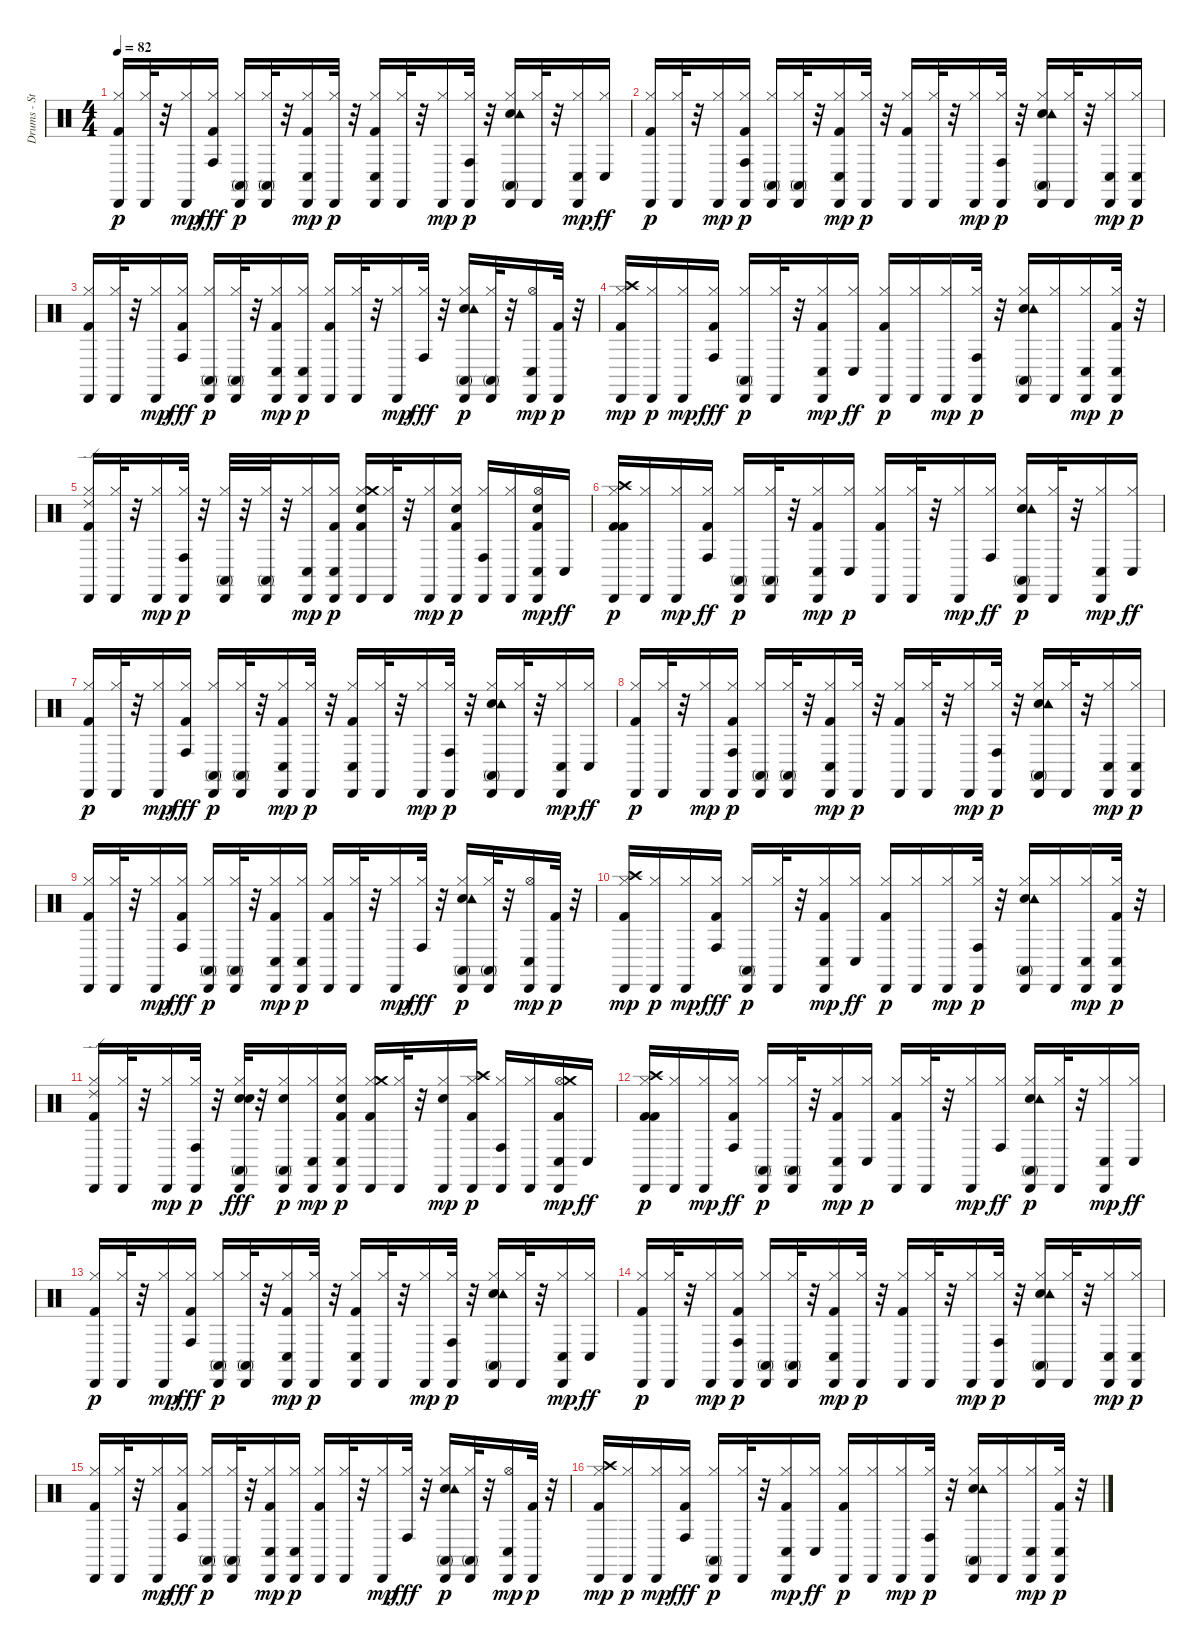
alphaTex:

\track ("Drums - Standard" "Drums - St") {instrument percussion}
\staff {score}
\articulation defaults
\ts (4 4)
\tempo 82
\clef neutral
\ks c
("Kick (hit) 2" "Hi-Hat (closed)" "Cabasa (hit)").16{dy p} ("Hi-Hat (closed)" "Cabasa (hit)").32 r.32 ("Hi-Hat (closed)" "Cabasa (hit)").16{dy mp} ("Kick (hit) 2" "Hi-Hat (closed)" "Conga high (hit)").16{dy fff} ("Hi-Hat (closed)" "Conga high (mute)" "Cabasa (hit)").16{dy p} ("Hi-Hat (closed)" "Conga high (mute)" "Cabasa (hit)").32 r.32 ("Kick (hit) 2" "Hi-Hat (closed)" "Conga low (hit)" "Cabasa (hit)").16{dy mp} ("Hi-Hat (closed)" "Cabasa (hit)").32{dy p} r.32 ("Kick (hit) 2" "Hi-Hat (closed)" "Conga low (hit)" "Cabasa (hit)").16 ("Hi-Hat (closed)" "Cabasa (hit)").32 r.32 ("Hi-Hat (closed)" "Cabasa (hit)").16{dy mp} ("Hi-Hat (closed)" "Conga high (hit)" "Cabasa (hit)").32{dy p} r.32 ("Electric Snare (hit)" "Hi-Hat (closed)" "Tambourine (hit)" "Conga high (mute)" "Cabasa (hit)").16 ("Hi-Hat (closed)" "Cabasa (hit)").32 r.32 ("Hi-Hat (closed)" "Conga low (hit)" "Cabasa (hit)").16{dy mp} ("Hi-Hat (closed)" "Conga low (hit)").16{dy ff} |
("Kick (hit) 2" "Hi-Hat (closed)" "Cabasa (hit)").16{dy p} ("Hi-Hat (closed)" "Cabasa (hit)").32 r.32 ("Hi-Hat (closed)" "Cabasa (hit)").16{dy mp} ("Kick (hit) 2" "Hi-Hat (closed)" "Conga high (hit)" "Cabasa (hit)").16{dy p} ("Hi-Hat (closed)" "Conga high (mute)" "Cabasa (hit)").16 ("Hi-Hat (closed)" "Conga high (mute)" "Cabasa (hit)").32 r.32 ("Kick (hit) 2" "Hi-Hat (closed)" "Conga low (hit)" "Cabasa (hit)").16{dy mp} ("Hi-Hat (closed)" "Cabasa (hit)").32{dy p} r.32 ("Kick (hit) 2" "Hi-Hat (closed)" "Cabasa (hit)").16 ("Hi-Hat (closed)" "Cabasa (hit)").32 r.32 ("Hi-Hat (closed)" "Cabasa (hit)").16{dy mp} ("Hi-Hat (closed)" "Conga high (hit)" "Cabasa (hit)").32{dy p} r.32 ("Electric Snare (hit)" "Hi-Hat (closed)" "Tambourine (hit)" "Conga high (mute)" "Cabasa (hit)").16 ("Hi-Hat (closed)" "Cabasa (hit)").32 r.32 ("Hi-Hat (closed)" "Conga low (hit)" "Cabasa (hit)").16{dy mp} ("Hi-Hat (closed)" "Conga low (hit)" "Cabasa (hit)").16{dy p} |
("Kick (hit) 2" "Hi-Hat (closed)" "Cabasa (hit)").16 ("Hi-Hat (closed)" "Cabasa (hit)").32 r.32 ("Hi-Hat (closed)" "Cabasa (hit)").16{dy mp} ("Kick (hit) 2" "Hi-Hat (closed)" "Conga high (hit)").16{dy fff} ("Hi-Hat (closed)" "Conga high (mute)" "Cabasa (hit)").16{dy p} ("Hi-Hat (closed)" "Conga high (mute)" "Cabasa (hit)").32 r.32 ("Kick (hit) 2" "Hi-Hat (closed)" "Conga low (hit)" "Cabasa (hit)").16{dy mp} ("Hi-Hat (closed)" "Conga low (hit)" "Cabasa (hit)").16{dy p} ("Kick (hit) 2" "Hi-Hat (closed)" "Cabasa (hit)").16 ("Hi-Hat (closed)" "Cabasa (hit)").32 r.32 ("Hi-Hat (closed)" "Cabasa (hit)").16{dy mp} ("Hi-Hat (closed)" "Conga high (hit)").32{dy fff} r.32 ("Electric Snare (hit)" "Hi-Hat (closed)" "Tambourine (hit)" "Conga high (mute)" "Cabasa (hit)").16{dy p} ("Hi-Hat (closed)" "Conga high (mute)" "Cabasa (hit)").32 r.32 ("Hi-Hat (open)" "Conga low (hit)" "Cabasa (hit)").16{dy mp} ("Kick (hit) 2" "Cabasa (hit)").32{dy p} r.32 |
("Kick (hit) 2" "Hi-Hat (closed)" "Crash high (hit)" "Cabasa (hit)").16{dy mp} ("Hi-Hat (closed)" "Cabasa (hit)").16{dy p} ("Hi-Hat (closed)" "Cabasa (hit)").16{dy mp} ("Kick (hit) 2" "Hi-Hat (closed)" "Conga high (hit)").16{dy fff} ("Hi-Hat (closed)" "Conga high (mute)" "Cabasa (hit)").16{dy p} ("Hi-Hat (closed)" "Cabasa (hit)").32 r.32 ("Kick (hit) 2" "Hi-Hat (closed)" "Conga low (hit)" "Cabasa (hit)").16{dy mp} ("Hi-Hat (closed)" "Conga low (hit)").16{dy ff} ("Kick (hit) 2" "Hi-Hat (closed)" "Cabasa (hit)").16{dy p} ("Hi-Hat (closed)" "Cabasa (hit)").16 ("Hi-Hat (closed)" "Cabasa (hit)").16{dy mp} ("Hi-Hat (closed)" "Conga high (hit)" "Cabasa (hit)").32{dy p} r.32 ("Electric Snare (hit)" "Hi-Hat (closed)" "Tambourine (hit)" "Conga high (mute)" "Cabasa (hit)").16 ("Hi-Hat (closed)" "Cabasa (hit)").16 ("Hi-Hat (closed)" "Conga low (hit)" "Cabasa (hit)").16{dy mp} ("Kick (hit) 2" "Hi-Hat (closed)" "Conga low (hit)" "Cabasa (hit)").32{dy p} r.32 |
("Kick (hit) 2" "Hi-Hat (closed)" "Ride (edge) 2" "Cabasa (hit)").16 ("Hi-Hat (closed)" "Cabasa (hit)").32 r.32 ("Hi-Hat (closed)" "Cabasa (hit)").16{dy mp} ("Hi-Hat (closed)" "Conga high (hit)" "Cabasa (hit)").32{dy p} r.32 ("Hi-Hat (closed)" "Conga high (mute)" "Cabasa (hit)").32 r.32 ("Hi-Hat (closed)" "Conga high (mute)" "Cabasa (hit)").32 r.32 ("Hi-Hat (closed)" "Conga low (hit)" "Cabasa (hit)").16{dy mp} ("Kick (hit) 2" "Hi-Hat (closed)" "Conga low (hit)" "Cabasa (hit)").16{dy p} ("Kick (hit) 2" "Electric Snare (hit)" "Hi-Hat (closed)" "Crash medium (hit)" "Cabasa (hit)").16 ("Hi-Hat (closed)" "Cabasa (hit)").32 r.32 ("Hi-Hat (closed)" "Cabasa (hit)").16{dy mp} ("Kick (hit) 2" "Electric Snare (hit)" "Hi-Hat (closed)" "Cabasa (hit)").16{dy p} ("Hi-Hat (closed)" "Conga high (hit)" "Cabasa (hit)").16 ("Hi-Hat (closed)" "Cabasa (hit)").16 ("Kick (hit) 2" "Electric Snare (hit)" "Hi-Hat (open)" "Conga low (hit)" "Cabasa (hit)").16{dy mp} "Conga low (hit)".16{dy ff} |
("Kick (hit) 2" "Kick (hit) 2" "Hi-Hat (closed)" "Crash high (hit)" "Cabasa (hit)").16{dy p} ("Hi-Hat (closed)" "Cabasa (hit)").16 ("Hi-Hat (closed)" "Cabasa (hit)").16{dy mp} ("Kick (hit) 2" "Hi-Hat (closed)" "Conga high (hit)").16{dy ff} ("Hi-Hat (closed)" "Conga high (mute)" "Cabasa (hit)").16{dy p} ("Hi-Hat (closed)" "Conga high (mute)" "Cabasa (hit)").32 r.32 ("Kick (hit) 2" "Hi-Hat (closed)" "Conga low (hit)" "Cabasa (hit)").16{dy mp} ("Hi-Hat (closed)" "Conga low (hit)").16{dy p} ("Kick (hit) 2" "Hi-Hat (closed)" "Cabasa (hit)").16 ("Hi-Hat (closed)" "Cabasa (hit)").32 r.32 ("Hi-Hat (closed)" "Cabasa (hit)").16{dy mp} ("Hi-Hat (closed)" "Conga high (hit)").16{dy ff} ("Electric Snare (hit)" "Hi-Hat (closed)" "Tambourine (hit)" "Conga high (mute)" "Cabasa (hit)").16{dy p} ("Hi-Hat (closed)" "Cabasa (hit)").32 r.32 ("Hi-Hat (closed)" "Conga low (hit)" "Cabasa (hit)").16{dy mp} ("Hi-Hat (closed)" "Conga low (hit)").16{dy ff} |
("Kick (hit) 2" "Hi-Hat (closed)" "Cabasa (hit)").16{dy p} ("Hi-Hat (closed)" "Cabasa (hit)").32 r.32 ("Hi-Hat (closed)" "Cabasa (hit)").16{dy mp} ("Kick (hit) 2" "Hi-Hat (closed)" "Conga high (hit)").16{dy fff} ("Hi-Hat (closed)" "Conga high (mute)" "Cabasa (hit)").16{dy p} ("Hi-Hat (closed)" "Conga high (mute)" "Cabasa (hit)").32 r.32 ("Kick (hit) 2" "Hi-Hat (closed)" "Conga low (hit)" "Cabasa (hit)").16{dy mp} ("Hi-Hat (closed)" "Cabasa (hit)").32{dy p} r.32 ("Kick (hit) 2" "Hi-Hat (closed)" "Conga low (hit)" "Cabasa (hit)").16 ("Hi-Hat (closed)" "Cabasa (hit)").32 r.32 ("Hi-Hat (closed)" "Cabasa (hit)").16{dy mp} ("Hi-Hat (closed)" "Conga high (hit)" "Cabasa (hit)").32{dy p} r.32 ("Electric Snare (hit)" "Hi-Hat (closed)" "Tambourine (hit)" "Conga high (mute)" "Cabasa (hit)").16 ("Hi-Hat (closed)" "Cabasa (hit)").32 r.32 ("Hi-Hat (closed)" "Conga low (hit)" "Cabasa (hit)").16{dy mp} ("Hi-Hat (closed)" "Conga low (hit)").16{dy ff} |
("Kick (hit) 2" "Hi-Hat (closed)" "Cabasa (hit)").16{dy p} ("Hi-Hat (closed)" "Cabasa (hit)").32 r.32 ("Hi-Hat (closed)" "Cabasa (hit)").16{dy mp} ("Kick (hit) 2" "Hi-Hat (closed)" "Conga high (hit)" "Cabasa (hit)").16{dy p} ("Hi-Hat (closed)" "Conga high (mute)" "Cabasa (hit)").16 ("Hi-Hat (closed)" "Conga high (mute)" "Cabasa (hit)").32 r.32 ("Kick (hit) 2" "Hi-Hat (closed)" "Conga low (hit)" "Cabasa (hit)").16{dy mp} ("Hi-Hat (closed)" "Cabasa (hit)").32{dy p} r.32 ("Kick (hit) 2" "Hi-Hat (closed)" "Cabasa (hit)").16 ("Hi-Hat (closed)" "Cabasa (hit)").32 r.32 ("Hi-Hat (closed)" "Cabasa (hit)").16{dy mp} ("Hi-Hat (closed)" "Conga high (hit)" "Cabasa (hit)").32{dy p} r.32 ("Electric Snare (hit)" "Hi-Hat (closed)" "Tambourine (hit)" "Conga high (mute)" "Cabasa (hit)").16 ("Hi-Hat (closed)" "Cabasa (hit)").32 r.32 ("Hi-Hat (closed)" "Conga low (hit)" "Cabasa (hit)").16{dy mp} ("Hi-Hat (closed)" "Conga low (hit)" "Cabasa (hit)").16{dy p} |
("Kick (hit) 2" "Hi-Hat (closed)" "Cabasa (hit)").16 ("Hi-Hat (closed)" "Cabasa (hit)").32 r.32 ("Hi-Hat (closed)" "Cabasa (hit)").16{dy mp} ("Kick (hit) 2" "Hi-Hat (closed)" "Conga high (hit)").16{dy fff} ("Hi-Hat (closed)" "Conga high (mute)" "Cabasa (hit)").16{dy p} ("Hi-Hat (closed)" "Conga high (mute)" "Cabasa (hit)").32 r.32 ("Kick (hit) 2" "Hi-Hat (closed)" "Conga low (hit)" "Cabasa (hit)").16{dy mp} ("Hi-Hat (closed)" "Conga low (hit)" "Cabasa (hit)").16{dy p} ("Kick (hit) 2" "Hi-Hat (closed)" "Cabasa (hit)").16 ("Hi-Hat (closed)" "Cabasa (hit)").32 r.32 ("Hi-Hat (closed)" "Cabasa (hit)").16{dy mp} ("Hi-Hat (closed)" "Conga high (hit)").32{dy fff} r.32 ("Electric Snare (hit)" "Hi-Hat (closed)" "Tambourine (hit)" "Conga high (mute)" "Cabasa (hit)").16{dy p} ("Hi-Hat (closed)" "Conga high (mute)" "Cabasa (hit)").32 r.32 ("Hi-Hat (open)" "Conga low (hit)" "Cabasa (hit)").16{dy mp} ("Kick (hit) 2" "Cabasa (hit)").32{dy p} r.32 |
("Kick (hit) 2" "Hi-Hat (closed)" "Crash high (hit)" "Cabasa (hit)").16{dy mp} ("Hi-Hat (closed)" "Cabasa (hit)").16{dy p} ("Hi-Hat (closed)" "Cabasa (hit)").16{dy mp} ("Kick (hit) 2" "Hi-Hat (closed)" "Conga high (hit)").16{dy fff} ("Hi-Hat (closed)" "Conga high (mute)" "Cabasa (hit)").16{dy p} ("Hi-Hat (closed)" "Cabasa (hit)").32 r.32 ("Kick (hit) 2" "Hi-Hat (closed)" "Conga low (hit)" "Cabasa (hit)").16{dy mp} ("Hi-Hat (closed)" "Conga low (hit)").16{dy ff} ("Kick (hit) 2" "Hi-Hat (closed)" "Cabasa (hit)").16{dy p} ("Hi-Hat (closed)" "Cabasa (hit)").16 ("Hi-Hat (closed)" "Cabasa (hit)").16{dy mp} ("Hi-Hat (closed)" "Conga high (hit)" "Cabasa (hit)").32{dy p} r.32 ("Electric Snare (hit)" "Hi-Hat (closed)" "Tambourine (hit)" "Conga high (mute)" "Cabasa (hit)").16 ("Hi-Hat (closed)" "Cabasa (hit)").16 ("Hi-Hat (closed)" "Conga low (hit)" "Cabasa (hit)").16{dy mp} ("Kick (hit) 2" "Hi-Hat (closed)" "Conga low (hit)" "Cabasa (hit)").32{dy p} r.32 |
("Kick (hit) 2" "Hi-Hat (closed)" "Ride (edge) 2" "Cabasa (hit)").16 ("Hi-Hat (closed)" "Cabasa (hit)").32 r.32 ("Hi-Hat (closed)" "Cabasa (hit)").16{dy mp} ("Hi-Hat (closed)" "Conga high (hit)" "Cabasa (hit)").32{dy p} r.32 ("Snare (hit) 2" "Hi-Hat (closed)" "Conga high (mute)" "Cabasa (hit)" "Electric Snare (hit)").32{dy fff} r.32 ("Electric Snare (hit)" "Hi-Hat (closed)" "Conga high (mute)" "Cabasa (hit)").16{dy p} ("Hi-Hat (closed)" "Conga low (hit)" "Cabasa (hit)").16{dy mp} ("Kick (hit) 2" "Electric Snare (hit)" "Hi-Hat (closed)" "Conga low (hit)" "Cabasa (hit)").16{dy p} ("Kick (hit) 2" "Hi-Hat (closed)" "Crash medium (hit)" "Cabasa (hit)").16 ("Hi-Hat (closed)" "Cabasa (hit)").32 r.32 ("Electric Snare (hit)" "Hi-Hat (closed)" "Cabasa (hit)").16{dy mp} ("Kick (hit) 2" "Hi-Hat (closed)" "Crash high (hit)" "Cabasa (hit)").16{dy p} ("Hi-Hat (closed)" "Conga high (hit)" "Cabasa (hit)").16 ("Hi-Hat (closed)" "Cabasa (hit)").16 ("Kick (hit) 2" "Hi-Hat (open)" "Crash medium (hit)" "Conga low (hit)" "Cabasa (hit)").16{dy mp} "Conga low (hit)".16{dy ff} |
("Kick (hit) 2" "Kick (hit) 2" "Hi-Hat (closed)" "Crash high (hit)" "Cabasa (hit)").16{dy p} ("Hi-Hat (closed)" "Cabasa (hit)").16 ("Hi-Hat (closed)" "Cabasa (hit)").16{dy mp} ("Kick (hit) 2" "Hi-Hat (closed)" "Conga high (hit)").16{dy ff} ("Hi-Hat (closed)" "Conga high (mute)" "Cabasa (hit)").16{dy p} ("Hi-Hat (closed)" "Conga high (mute)" "Cabasa (hit)").32 r.32 ("Kick (hit) 2" "Hi-Hat (closed)" "Conga low (hit)" "Cabasa (hit)").16{dy mp} ("Hi-Hat (closed)" "Conga low (hit)").16{dy p} ("Kick (hit) 2" "Hi-Hat (closed)" "Cabasa (hit)").16 ("Hi-Hat (closed)" "Cabasa (hit)").32 r.32 ("Hi-Hat (closed)" "Cabasa (hit)").16{dy mp} ("Hi-Hat (closed)" "Conga high (hit)").16{dy ff} ("Electric Snare (hit)" "Hi-Hat (closed)" "Tambourine (hit)" "Conga high (mute)" "Cabasa (hit)").16{dy p} ("Hi-Hat (closed)" "Cabasa (hit)").32 r.32 ("Hi-Hat (closed)" "Conga low (hit)" "Cabasa (hit)").16{dy mp} ("Hi-Hat (closed)" "Conga low (hit)").16{dy ff} |
("Kick (hit) 2" "Hi-Hat (closed)" "Cabasa (hit)").16{dy p} ("Hi-Hat (closed)" "Cabasa (hit)").32 r.32 ("Hi-Hat (closed)" "Cabasa (hit)").16{dy mp} ("Kick (hit) 2" "Hi-Hat (closed)" "Conga high (hit)").16{dy fff} ("Hi-Hat (closed)" "Conga high (mute)" "Cabasa (hit)").16{dy p} ("Hi-Hat (closed)" "Conga high (mute)" "Cabasa (hit)").32 r.32 ("Kick (hit) 2" "Hi-Hat (closed)" "Conga low (hit)" "Cabasa (hit)").16{dy mp} ("Hi-Hat (closed)" "Cabasa (hit)").32{dy p} r.32 ("Kick (hit) 2" "Hi-Hat (closed)" "Conga low (hit)" "Cabasa (hit)").16 ("Hi-Hat (closed)" "Cabasa (hit)").32 r.32 ("Hi-Hat (closed)" "Cabasa (hit)").16{dy mp} ("Hi-Hat (closed)" "Conga high (hit)" "Cabasa (hit)").32{dy p} r.32 ("Electric Snare (hit)" "Hi-Hat (closed)" "Tambourine (hit)" "Conga high (mute)" "Cabasa (hit)").16 ("Hi-Hat (closed)" "Cabasa (hit)").32 r.32 ("Hi-Hat (closed)" "Conga low (hit)" "Cabasa (hit)").16{dy mp} ("Hi-Hat (closed)" "Conga low (hit)").16{dy ff} |
("Kick (hit) 2" "Hi-Hat (closed)" "Cabasa (hit)").16{dy p} ("Hi-Hat (closed)" "Cabasa (hit)").32 r.32 ("Hi-Hat (closed)" "Cabasa (hit)").16{dy mp} ("Kick (hit) 2" "Hi-Hat (closed)" "Conga high (hit)" "Cabasa (hit)").16{dy p} ("Hi-Hat (closed)" "Conga high (mute)" "Cabasa (hit)").16 ("Hi-Hat (closed)" "Conga high (mute)" "Cabasa (hit)").32 r.32 ("Kick (hit) 2" "Hi-Hat (closed)" "Conga low (hit)" "Cabasa (hit)").16{dy mp} ("Hi-Hat (closed)" "Cabasa (hit)").32{dy p} r.32 ("Kick (hit) 2" "Hi-Hat (closed)" "Cabasa (hit)").16 ("Hi-Hat (closed)" "Cabasa (hit)").32 r.32 ("Hi-Hat (closed)" "Cabasa (hit)").16{dy mp} ("Hi-Hat (closed)" "Conga high (hit)" "Cabasa (hit)").32{dy p} r.32 ("Electric Snare (hit)" "Hi-Hat (closed)" "Tambourine (hit)" "Conga high (mute)" "Cabasa (hit)").16 ("Hi-Hat (closed)" "Cabasa (hit)").32 r.32 ("Hi-Hat (closed)" "Conga low (hit)" "Cabasa (hit)").16{dy mp} ("Hi-Hat (closed)" "Conga low (hit)" "Cabasa (hit)").16{dy p} |
("Kick (hit) 2" "Hi-Hat (closed)" "Cabasa (hit)").16 ("Hi-Hat (closed)" "Cabasa (hit)").32 r.32 ("Hi-Hat (closed)" "Cabasa (hit)").16{dy mp} ("Kick (hit) 2" "Hi-Hat (closed)" "Conga high (hit)").16{dy fff} ("Hi-Hat (closed)" "Conga high (mute)" "Cabasa (hit)").16{dy p} ("Hi-Hat (closed)" "Conga high (mute)" "Cabasa (hit)").32 r.32 ("Kick (hit) 2" "Hi-Hat (closed)" "Conga low (hit)" "Cabasa (hit)").16{dy mp} ("Hi-Hat (closed)" "Conga low (hit)" "Cabasa (hit)").16{dy p} ("Kick (hit) 2" "Hi-Hat (closed)" "Cabasa (hit)").16 ("Hi-Hat (closed)" "Cabasa (hit)").32 r.32 ("Hi-Hat (closed)" "Cabasa (hit)").16{dy mp} ("Hi-Hat (closed)" "Conga high (hit)").32{dy fff} r.32 ("Electric Snare (hit)" "Hi-Hat (closed)" "Tambourine (hit)" "Conga high (mute)" "Cabasa (hit)").16{dy p} ("Hi-Hat (closed)" "Conga high (mute)" "Cabasa (hit)").32 r.32 ("Hi-Hat (open)" "Conga low (hit)" "Cabasa (hit)").16{dy mp} ("Kick (hit) 2" "Cabasa (hit)").32{dy p} r.32 |
("Kick (hit) 2" "Hi-Hat (closed)" "Crash high (hit)" "Cabasa (hit)").16{dy mp} ("Hi-Hat (closed)" "Cabasa (hit)").16{dy p} ("Hi-Hat (closed)" "Cabasa (hit)").16{dy mp} ("Kick (hit) 2" "Hi-Hat (closed)" "Conga high (hit)").16{dy fff} ("Hi-Hat (closed)" "Conga high (mute)" "Cabasa (hit)").16{dy p} ("Hi-Hat (closed)" "Cabasa (hit)").32 r.32 ("Kick (hit) 2" "Hi-Hat (closed)" "Conga low (hit)" "Cabasa (hit)").16{dy mp} ("Hi-Hat (closed)" "Conga low (hit)").16{dy ff} ("Kick (hit) 2" "Hi-Hat (closed)" "Cabasa (hit)").16{dy p} ("Hi-Hat (closed)" "Cabasa (hit)").16 ("Hi-Hat (closed)" "Cabasa (hit)").16{dy mp} ("Hi-Hat (closed)" "Conga high (hit)" "Cabasa (hit)").32{dy p} r.32 ("Electric Snare (hit)" "Hi-Hat (closed)" "Tambourine (hit)" "Conga high (mute)" "Cabasa (hit)").16 ("Hi-Hat (closed)" "Cabasa (hit)").16 ("Hi-Hat (closed)" "Conga low (hit)" "Cabasa (hit)").16{dy mp} ("Kick (hit) 2" "Hi-Hat (closed)" "Conga low (hit)" "Cabasa (hit)").32{dy p} r.32
